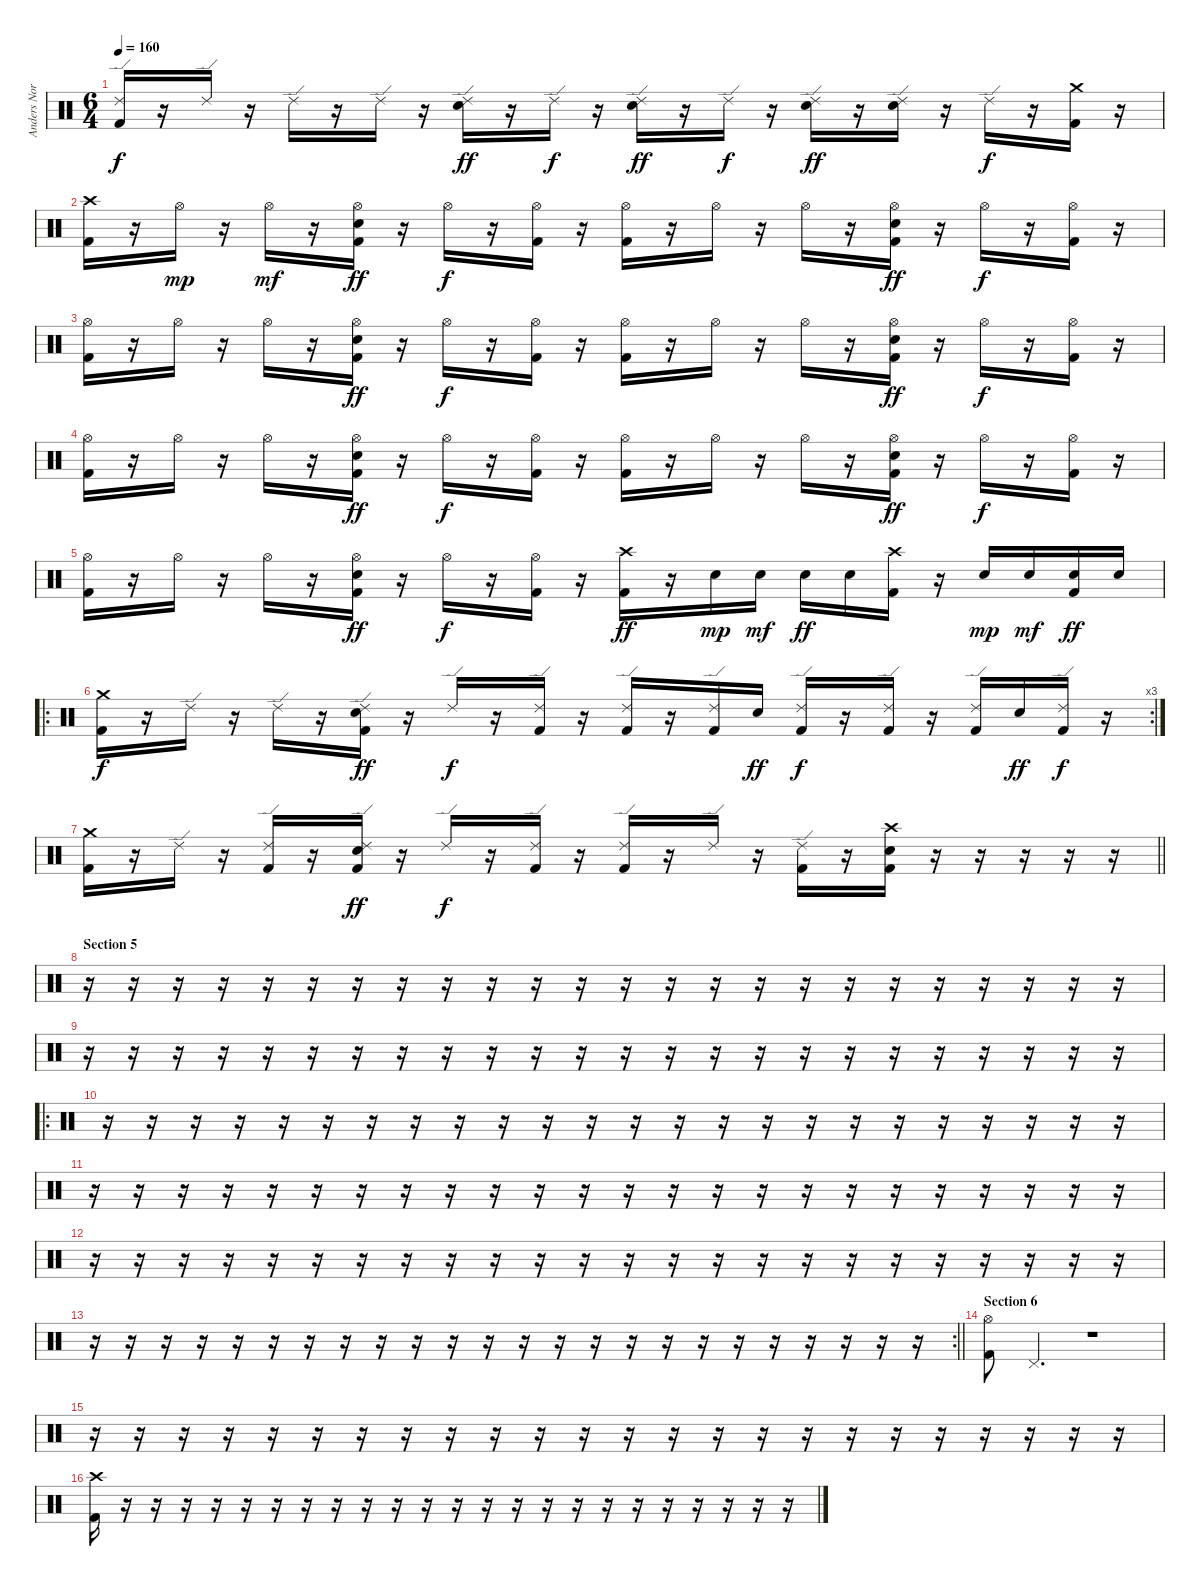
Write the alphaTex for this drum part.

\track ("Anders Nordin" "Anders Nor") {instrument percussion}
\staff {score}
\articulation defaults
\ts (6 4)
\tempo 160
\clef neutral
\ks c
("Ride (edge) 2" "Kick (hit) 2").16{dy f} r.16 "Ride (edge) 2".16 r.16 "Ride (edge) 2".16 r.16 "Ride (edge) 2".16 r.16 ("Ride (edge) 2" "Snare (hit) 2").16{dy ff} r.16 "Ride (edge) 2".16{dy f} r.16 ("Ride (edge) 2" "Snare (hit) 2").16{dy ff} r.16 "Ride (edge) 2".16{dy f} r.16 ("Ride (edge) 2" "Snare (hit) 2").16{dy ff} r.16 ("Ride (edge) 2" "Snare (hit) 2").16 r.16 "Ride (edge) 2".16{dy f} r.16 ("Crash medium (hit)" "Kick (hit) 2").16 r.16 |
("Crash high (hit)" "Kick (hit) 2").16 r.16 "Hi-Hat (open)".16{dy mp} r.16 "Hi-Hat (open)".16{dy mf} r.16 ("Hi-Hat (open)" "Snare (hit) 2" "Kick (hit) 2").16{dy ff} r.16 "Hi-Hat (open)".16{dy f} r.16 ("Hi-Hat (open)" "Kick (hit) 2").16 r.16 ("Hi-Hat (open)" "Kick (hit) 2").16 r.16 "Hi-Hat (open)".16 r.16 "Hi-Hat (open)".16 r.16 ("Hi-Hat (open)" "Snare (hit) 2" "Kick (hit) 2").16{dy ff} r.16 "Hi-Hat (open)".16{dy f} r.16 ("Hi-Hat (open)" "Kick (hit) 2").16 r.16 |
("Hi-Hat (open)" "Kick (hit) 2").16 r.16 "Hi-Hat (open)".16 r.16 "Hi-Hat (open)".16 r.16 ("Hi-Hat (open)" "Snare (hit) 2" "Kick (hit) 2").16{dy ff} r.16 "Hi-Hat (open)".16{dy f} r.16 ("Hi-Hat (open)" "Kick (hit) 2").16 r.16 ("Hi-Hat (open)" "Kick (hit) 2").16 r.16 "Hi-Hat (open)".16 r.16 "Hi-Hat (open)".16 r.16 ("Hi-Hat (open)" "Snare (hit) 2" "Kick (hit) 2").16{dy ff} r.16 "Hi-Hat (open)".16{dy f} r.16 ("Hi-Hat (open)" "Kick (hit) 2").16 r.16 |
("Hi-Hat (open)" "Kick (hit) 2").16 r.16 "Hi-Hat (open)".16 r.16 "Hi-Hat (open)".16 r.16 ("Hi-Hat (open)" "Snare (hit) 2" "Kick (hit) 2").16{dy ff} r.16 "Hi-Hat (open)".16{dy f} r.16 ("Hi-Hat (open)" "Kick (hit) 2").16 r.16 ("Hi-Hat (open)" "Kick (hit) 2").16 r.16 "Hi-Hat (open)".16 r.16 "Hi-Hat (open)".16 r.16 ("Hi-Hat (open)" "Snare (hit) 2" "Kick (hit) 2").16{dy ff} r.16 "Hi-Hat (open)".16{dy f} r.16 ("Hi-Hat (open)" "Kick (hit) 2").16 r.16 |
("Hi-Hat (open)" "Kick (hit) 2").16 r.16 "Hi-Hat (open)".16 r.16 "Hi-Hat (open)".16 r.16 ("Hi-Hat (open)" "Snare (hit) 2" "Kick (hit) 2").16{dy ff} r.16 "Hi-Hat (open)".16{dy f} r.16 ("Hi-Hat (open)" "Kick (hit) 2").16 r.16 ("Crash high (hit)" "Kick (hit) 2").16{dy ff} r.16 "Snare (hit) 2".16{dy mp} "Snare (hit) 2".16{dy mf} "Snare (hit) 2".16{dy ff} "Snare (hit) 2".16 ("Crash high (hit)" "Kick (hit) 2").16 r.16 "Snare (hit) 2".16{dy mp} "Snare (hit) 2".16{dy mf} ("Snare (hit) 2" "Kick (hit) 2").16{dy ff} "Snare (hit) 2".16 |
\ro
\rc 3
("Crash medium (hit)" "Kick (hit) 2").16{dy f} r.16 "Ride (edge) 2".16 r.16 "Ride (edge) 2".16 r.16 ("Ride (edge) 2" "Snare (hit) 2" "Kick (hit) 2").16{dy ff} r.16 "Ride (edge) 2".16{dy f} r.16 ("Ride (edge) 2" "Kick (hit) 2").16 r.16 ("Ride (edge) 2" "Kick (hit) 2").16 r.16 ("Ride (edge) 2" "Kick (hit) 2").16 "Snare (hit) 2".16{dy ff} ("Ride (edge) 2" "Kick (hit) 2").16{dy f} r.16 ("Ride (edge) 2" "Kick (hit) 2").16 r.16 ("Ride (edge) 2" "Kick (hit) 2").16 "Snare (hit) 2".16{dy ff} ("Ride (edge) 2" "Kick (hit) 2").16{dy f} r.16 |
\barLineRight lightlight
("Crash medium (hit)" "Kick (hit) 2").16 r.16 "Ride (edge) 2".16 r.16 ("Ride (edge) 2" "Kick (hit) 2").16 r.16 ("Ride (edge) 2" "Snare (hit) 2" "Kick (hit) 2").16{dy ff} r.16 "Ride (edge) 2".16{dy f} r.16 ("Ride (edge) 2" "Kick (hit) 2").16 r.16 ("Ride (edge) 2" "Kick (hit) 2").16 r.16 "Ride (edge) 2".16 r.16 ("Ride (edge) 2" "Kick (hit) 2").16 r.16 ("Crash high (hit)" "Snare (hit) 2" "Kick (hit) 2").16 r.16 r.16 r.16 r.16 r.16 |
\section ("" "Section 5")
r.16 r.16 r.16 r.16 r.16 r.16 r.16 r.16 r.16 r.16 r.16 r.16 r.16 r.16 r.16 r.16 r.16 r.16 r.16 r.16 r.16 r.16 r.16 r.16 |
r.16 r.16 r.16 r.16 r.16 r.16 r.16 r.16 r.16 r.16 r.16 r.16 r.16 r.16 r.16 r.16 r.16 r.16 r.16 r.16 r.16 r.16 r.16 r.16 |
\ro
r.16 r.16 r.16 r.16 r.16 r.16 r.16 r.16 r.16 r.16 r.16 r.16 r.16 r.16 r.16 r.16 r.16 r.16 r.16 r.16 r.16 r.16 r.16 r.16 |
r.16 r.16 r.16 r.16 r.16 r.16 r.16 r.16 r.16 r.16 r.16 r.16 r.16 r.16 r.16 r.16 r.16 r.16 r.16 r.16 r.16 r.16 r.16 r.16 |
r.16 r.16 r.16 r.16 r.16 r.16 r.16 r.16 r.16 r.16 r.16 r.16 r.16 r.16 r.16 r.16 r.16 r.16 r.16 r.16 r.16 r.16 r.16 r.16 |
\rc 2
\barLineRight lightlight
r.16 r.16 r.16 r.16 r.16 r.16 r.16 r.16 r.16 r.16 r.16 r.16 r.16 r.16 r.16 r.16 r.16 r.16 r.16 r.16 r.16 r.16 r.16 r.16 |
\section ("" "Section 6")
("Hi-Hat (open)" "Kick (hit) 2").8 "Pedal Hi-Hat (hit)".4{d} r.1 |
r.16 r.16 r.16 r.16 r.16 r.16 r.16 r.16 r.16 r.16 r.16 r.16 r.16 r.16 r.16 r.16 r.16 r.16 r.16 r.16 r.16 r.16 r.16 r.16 |
("Crash high (hit)" "Kick (hit) 2").16 r.16 r.16 r.16 r.16 r.16 r.16 r.16 r.16 r.16 r.16 r.16 r.16 r.16 r.16 r.16 r.16 r.16 r.16 r.16 r.16 r.16 r.16 r.16
